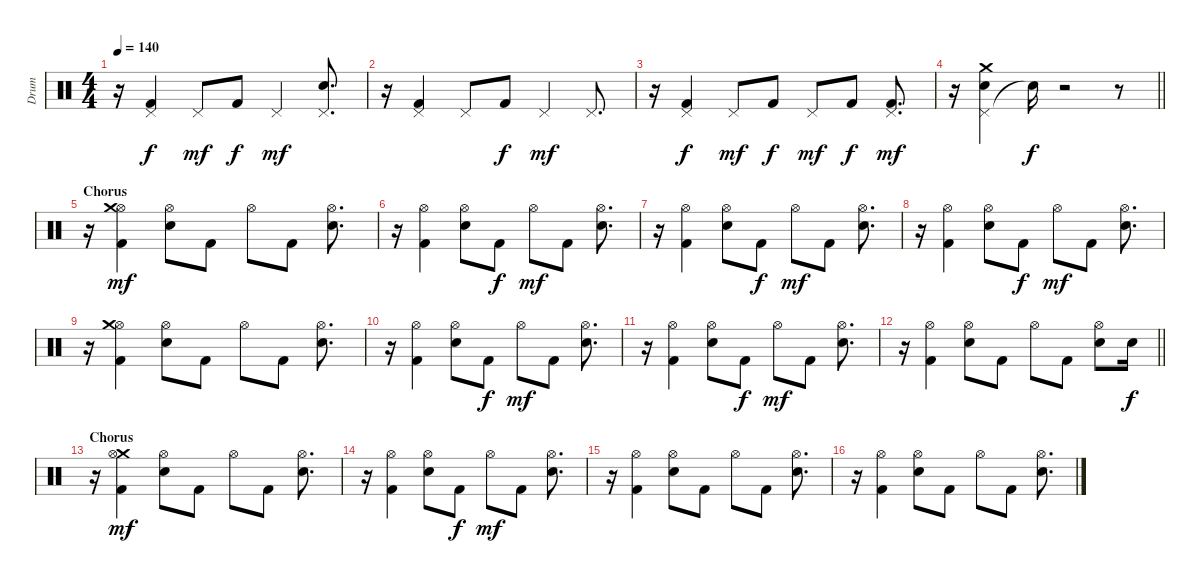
\track ("Drum" "Drum") {instrument percussion}
\staff {score}
\articulation defaults
\ts (4 4)
\tempo 140
\clef neutral
\ks c
r.16{dy mf} ("Pedal Hi-Hat (hit)" "Kick (hit) 2").4{dy f} "Pedal Hi-Hat (hit)".8{dy mf} "Kick (hit) 2".8{dy f} "Pedal Hi-Hat (hit)".4{dy mf} ("Pedal Hi-Hat (hit)" "Electric Snare (hit)").8{d} |
r.16 ("Kick (hit) 2" "Pedal Hi-Hat (hit)").4 "Pedal Hi-Hat (hit)".8 "Kick (hit) 2".8{dy f} "Pedal Hi-Hat (hit)".4{dy mf} "Pedal Hi-Hat (hit)".8{d} |
r.16 ("Pedal Hi-Hat (hit)" "Kick (hit) 2").4{dy f} "Pedal Hi-Hat (hit)".8{dy mf} "Kick (hit) 2".8{dy f} "Pedal Hi-Hat (hit)".8{dy mf} "Kick (hit) 2".8{dy f} ("Pedal Hi-Hat (hit)" "Kick (hit) 2").8{d dy mf} |
\barLineRight lightlight
r.16 ("Pedal Hi-Hat (hit)" "Electric Snare (hit)" "Crash medium (hit)").4 "Snare (hit)"{t}.16{dy f} r.2 r.8 |
\section ("" "Chorus")
r.16 ("Hi-Hat (open)" "Kick (hit) 2" "Crash medium (hit)").4{dy mf} ("Electric Snare (hit)" "Hi-Hat (open)").8 "Kick (hit) 2".8 "Hi-Hat (open)".8 "Kick (hit) 2".8 ("Hi-Hat (open)" "Electric Snare (hit)").8{d} |
r.16 ("Hi-Hat (open)" "Kick (hit) 2").4 ("Electric Snare (hit)" "Hi-Hat (open)").8 "Kick (hit) 2".8{dy f} "Hi-Hat (open)".8{dy mf} "Kick (hit) 2".8 ("Electric Snare (hit)" "Hi-Hat (open)").8{d} |
r.16 ("Hi-Hat (open)" "Kick (hit) 2").4 ("Electric Snare (hit)" "Hi-Hat (open)").8 "Kick (hit) 2".8{dy f} "Hi-Hat (open)".8{dy mf} "Kick (hit) 2".8 ("Electric Snare (hit)" "Hi-Hat (open)").8{d} |
r.16 ("Hi-Hat (open)" "Kick (hit) 2").4 ("Electric Snare (hit)" "Hi-Hat (open)").8 "Kick (hit) 2".8{dy f} "Hi-Hat (open)".8{dy mf} "Kick (hit) 2".8 ("Electric Snare (hit)" "Hi-Hat (open)").8{d} |
r.16 ("Hi-Hat (open)" "Kick (hit) 2" "Crash medium (hit)").4 ("Electric Snare (hit)" "Hi-Hat (open)").8 "Kick (hit) 2".8 "Hi-Hat (open)".8 "Kick (hit) 2".8 ("Hi-Hat (open)" "Electric Snare (hit)").8{d} |
r.16 ("Hi-Hat (open)" "Kick (hit) 2").4 ("Electric Snare (hit)" "Hi-Hat (open)").8 "Kick (hit) 2".8{dy f} "Hi-Hat (open)".8{dy mf} "Kick (hit) 2".8 ("Electric Snare (hit)" "Hi-Hat (open)").8{d} |
r.16 ("Hi-Hat (open)" "Kick (hit) 2").4 ("Electric Snare (hit)" "Hi-Hat (open)").8 "Kick (hit) 2".8{dy f} "Hi-Hat (open)".8{dy mf} "Kick (hit) 2".8 ("Electric Snare (hit)" "Hi-Hat (open)").8{d} |
\barLineRight lightlight
r.16 ("Hi-Hat (open)" "Kick (hit) 2").4 ("Hi-Hat (open)" "Electric Snare (hit)").8 "Kick (hit) 2".8 "Hi-Hat (open)".8 "Kick (hit) 2".8 ("Hi-Hat (open)" "Electric Snare (hit)").8 "Electric Snare (hit)".16{dy f} |
\section ("" "Chorus")
r.16 ("Crash medium (hit)" "Hi-Hat (open)" "Kick (hit) 2").4{dy mf} ("Electric Snare (hit)" "Hi-Hat (open)").8 "Kick (hit) 2".8 "Hi-Hat (open)".8 "Kick (hit) 2".8 ("Hi-Hat (open)" "Electric Snare (hit)").8{d} |
r.16 ("Kick (hit) 2" "Hi-Hat (open)").4 ("Electric Snare (hit)" "Hi-Hat (open)").8 "Kick (hit) 2".8{dy f} "Hi-Hat (open)".8{dy mf} "Kick (hit) 2".8 ("Hi-Hat (open)" "Electric Snare (hit)").8{d} |
r.16 ("Hi-Hat (open)" "Kick (hit) 2").4 ("Hi-Hat (open)" "Electric Snare (hit)").8 "Kick (hit) 2".8 "Hi-Hat (open)".8 "Kick (hit) 2".8 ("Hi-Hat (open)" "Electric Snare (hit)").8{d} |
r.16 ("Kick (hit) 2" "Hi-Hat (open)").4 ("Hi-Hat (open)" "Electric Snare (hit)").8 "Kick (hit) 2".8 "Hi-Hat (open)".8 "Kick (hit) 2".8 ("Electric Snare (hit)" "Hi-Hat (open)").8{d}
